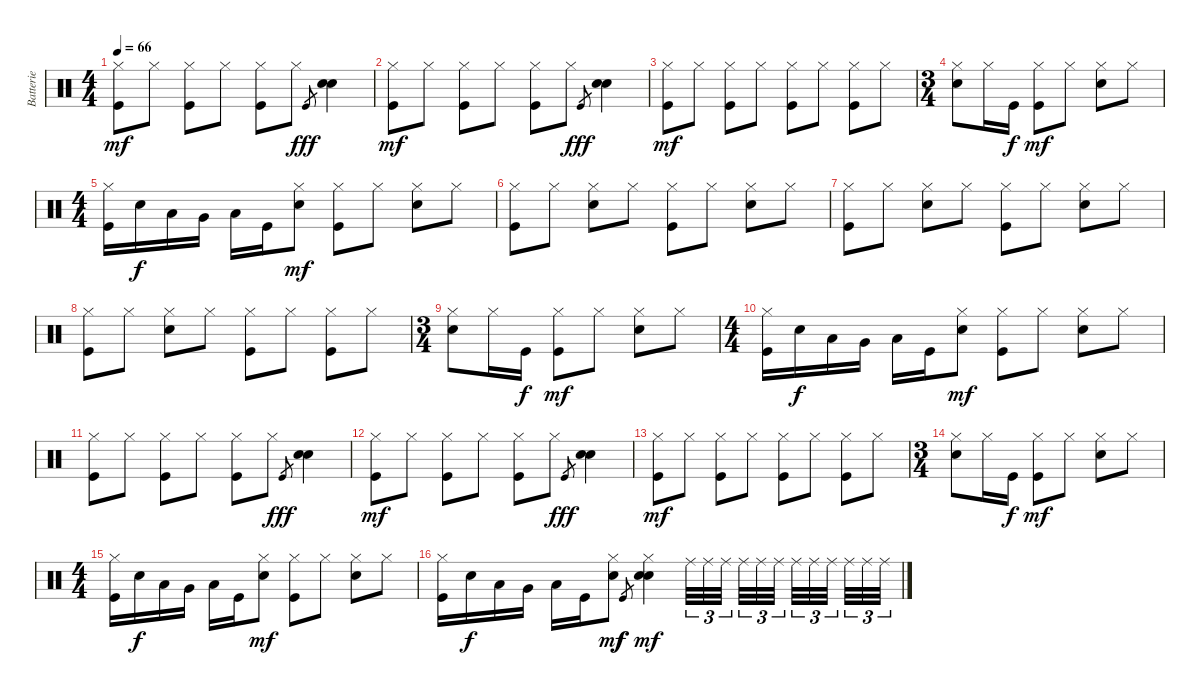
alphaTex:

\track ("Batterie" "Batterie") {instrument percussion}
\staff {score}
\articulation defaults
\ts (4 4)
\tempo 66
\clef neutral
\ks c
("Hi-Hat (closed)" "Kick (hit)").8{dy mf} "Hi-Hat (closed)".8 ("Hi-Hat (closed)" "Kick (hit)").8 "Hi-Hat (closed)".8 ("Hi-Hat (closed)" "Kick (hit)").8 "Hi-Hat (closed)".8 "Kick (hit)".8{gr dy fff} ("Snare (hit) 2" "Snare (hit) 2").4 |
("Hi-Hat (closed)" "Kick (hit)").8{dy mf} "Hi-Hat (closed)".8 ("Hi-Hat (closed)" "Kick (hit)").8 "Hi-Hat (closed)".8 ("Hi-Hat (closed)" "Kick (hit)").8 "Hi-Hat (closed)".8 "Kick (hit)".8{gr dy fff} ("Snare (hit) 2" "Snare (hit) 2").4 |
("Hi-Hat (closed)" "Kick (hit)").8{dy mf} "Hi-Hat (closed)".8 ("Hi-Hat (closed)" "Kick (hit)").8 "Hi-Hat (closed)".8 ("Hi-Hat (closed)" "Kick (hit)").8 "Hi-Hat (closed)".8 ("Hi-Hat (closed)" "Kick (hit)").8 "Hi-Hat (closed)".8 |
\ts (3 4)
("Hi-Hat (closed)" "Snare (hit) 2").8 "Hi-Hat (closed)".16 "Kick (hit)".16{dy f} ("Hi-Hat (closed)" "Kick (hit)").8{dy mf} "Hi-Hat (closed)".8 ("Hi-Hat (closed)" "Snare (hit) 2").8 "Hi-Hat (closed)".8 |
\ts (4 4)
("Hi-Hat (closed)" "Kick (hit)").16 "Snare (hit) 2".16{dy f} "Low Tom (hit)".16 "Very Low Tom (hit)".16 "Low Floor Tom (hit)".16 "Kick (hit)".16 ("Hi-Hat (closed)" "Snare (hit) 2").8{dy mf} ("Hi-Hat (closed)" "Kick (hit)").8 "Hi-Hat (closed)".8 ("Hi-Hat (closed)" "Snare (hit) 2").8 "Hi-Hat (closed)".8 |
("Hi-Hat (closed)" "Kick (hit)").8 "Hi-Hat (closed)".8 ("Hi-Hat (closed)" "Snare (hit) 2").8 "Hi-Hat (closed)".8 ("Hi-Hat (closed)" "Kick (hit)").8 "Hi-Hat (closed)".8 ("Hi-Hat (closed)" "Snare (hit) 2").8 "Hi-Hat (closed)".8 |
("Hi-Hat (closed)" "Kick (hit)").8 "Hi-Hat (closed)".8 ("Hi-Hat (closed)" "Snare (hit) 2").8 "Hi-Hat (closed)".8 ("Hi-Hat (closed)" "Kick (hit)").8 "Hi-Hat (closed)".8 ("Hi-Hat (closed)" "Snare (hit) 2").8 "Hi-Hat (closed)".8 |
("Hi-Hat (closed)" "Kick (hit)").8 "Hi-Hat (closed)".8 ("Hi-Hat (closed)" "Snare (hit) 2").8 "Hi-Hat (closed)".8 ("Hi-Hat (closed)" "Kick (hit)").8 "Hi-Hat (closed)".8 ("Hi-Hat (closed)" "Kick (hit)").8 "Hi-Hat (closed)".8 |
\ts (3 4)
("Hi-Hat (closed)" "Snare (hit) 2").8 "Hi-Hat (closed)".16 "Kick (hit)".16{dy f} ("Hi-Hat (closed)" "Kick (hit)").8{dy mf} "Hi-Hat (closed)".8 ("Hi-Hat (closed)" "Snare (hit) 2").8 "Hi-Hat (closed)".8 |
\ts (4 4)
("Hi-Hat (closed)" "Kick (hit)").16 "Snare (hit) 2".16{dy f} "Low Tom (hit)".16 "Very Low Tom (hit)".16 "Low Floor Tom (hit)".16 "Kick (hit)".16 ("Hi-Hat (closed)" "Snare (hit) 2").8{dy mf} ("Hi-Hat (closed)" "Kick (hit)").8 "Hi-Hat (closed)".8 ("Hi-Hat (closed)" "Snare (hit) 2").8 "Hi-Hat (closed)".8 |
("Hi-Hat (closed)" "Kick (hit)").8 "Hi-Hat (closed)".8 ("Hi-Hat (closed)" "Kick (hit)").8 "Hi-Hat (closed)".8 ("Hi-Hat (closed)" "Kick (hit)").8 "Hi-Hat (closed)".8 "Kick (hit)".8{gr dy fff} ("Snare (hit) 2" "Snare (hit) 2").4 |
("Hi-Hat (closed)" "Kick (hit)").8{dy mf} "Hi-Hat (closed)".8 ("Hi-Hat (closed)" "Kick (hit)").8 "Hi-Hat (closed)".8 ("Hi-Hat (closed)" "Kick (hit)").8 "Hi-Hat (closed)".8 "Kick (hit)".8{gr dy fff} ("Snare (hit) 2" "Snare (hit) 2").4 |
("Hi-Hat (closed)" "Kick (hit)").8{dy mf} "Hi-Hat (closed)".8 ("Hi-Hat (closed)" "Kick (hit)").8 "Hi-Hat (closed)".8 ("Hi-Hat (closed)" "Kick (hit)").8 "Hi-Hat (closed)".8 ("Hi-Hat (closed)" "Kick (hit)").8 "Hi-Hat (closed)".8 |
\ts (3 4)
("Hi-Hat (closed)" "Snare (hit) 2").8 "Hi-Hat (closed)".16 "Kick (hit)".16{dy f} ("Hi-Hat (closed)" "Kick (hit)").8{dy mf} "Hi-Hat (closed)".8 ("Hi-Hat (closed)" "Snare (hit) 2").8 "Hi-Hat (closed)".8 |
\ts (4 4)
("Hi-Hat (closed)" "Kick (hit)").16 "Snare (hit) 2".16{dy f} "Low Tom (hit)".16 "Very Low Tom (hit)".16 "Low Floor Tom (hit)".16 "Kick (hit)".16 ("Hi-Hat (closed)" "Snare (hit) 2").8{dy mf} ("Hi-Hat (closed)" "Kick (hit)").8 "Hi-Hat (closed)".8 ("Hi-Hat (closed)" "Snare (hit) 2").8 "Hi-Hat (closed)".8 |
("Hi-Hat (closed)" "Kick (hit)").16 "Snare (hit) 2".16{dy f} "Low Tom (hit)".16 "Very Low Tom (hit)".16 "Low Floor Tom (hit)".16 "Kick (hit)".16 ("Hi-Hat (closed)" "Snare (hit) 2").8{dy mf} "Kick (hit)".8{gr dy f} ("Hi-Hat (closed)" "Snare (hit) 2" "Snare (hit) 2").4{dy mf} "Ride (middle)".32{tu (3 2)} "Ride (middle)".32{tu (3 2)} "Ride (middle)".32{tu (3 2)} "Ride (middle)".32{tu (3 2)} "Ride (middle)".32{tu (3 2)} "Ride (middle)".32{tu (3 2)} "Ride (middle)".32{tu (3 2)} "Ride (middle)".32{tu (3 2)} "Ride (middle)".32{tu (3 2)} "Ride (middle)".32{tu (3 2)} "Ride (middle)".32{tu (3 2)} "Ride (middle)".32{tu (3 2)}
